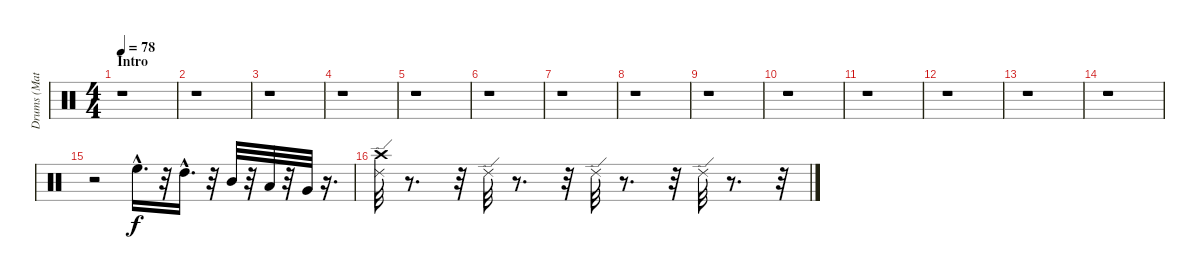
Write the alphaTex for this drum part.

\track ("Drums (Matt)" "Drums (Mat") {instrument percussion}
\staff {score}
\articulation defaults
\ts (4 4)
\section ("" "Intro")
\tempo 78
\clef neutral
\ks c
r.1{dy f} |
r.1 |
r.1 |
r.1 |
r.1 |
r.1 |
r.1 |
r.1 |
r.1 |
r.1 |
r.1 |
r.1 |
r.1 |
r.1 |
r.2 "High Floor Tom (hit)"{hac}.16{d} r.32 "High Tom (hit)"{hac}.16{d} r.32 "Mid Tom (hit)".32 r.32 "Low Tom (hit)".32 r.32 "Very Low Tom (hit)".32 r.16{d} |
("Ride (edge) 2" "Crash high (hit)").32 r.8{d} r.32 "Ride (edge) 2".32 r.8{d} r.32 "Ride (edge) 2".32 r.8{d} r.32 "Ride (edge) 2".32 r.8{d} r.32
